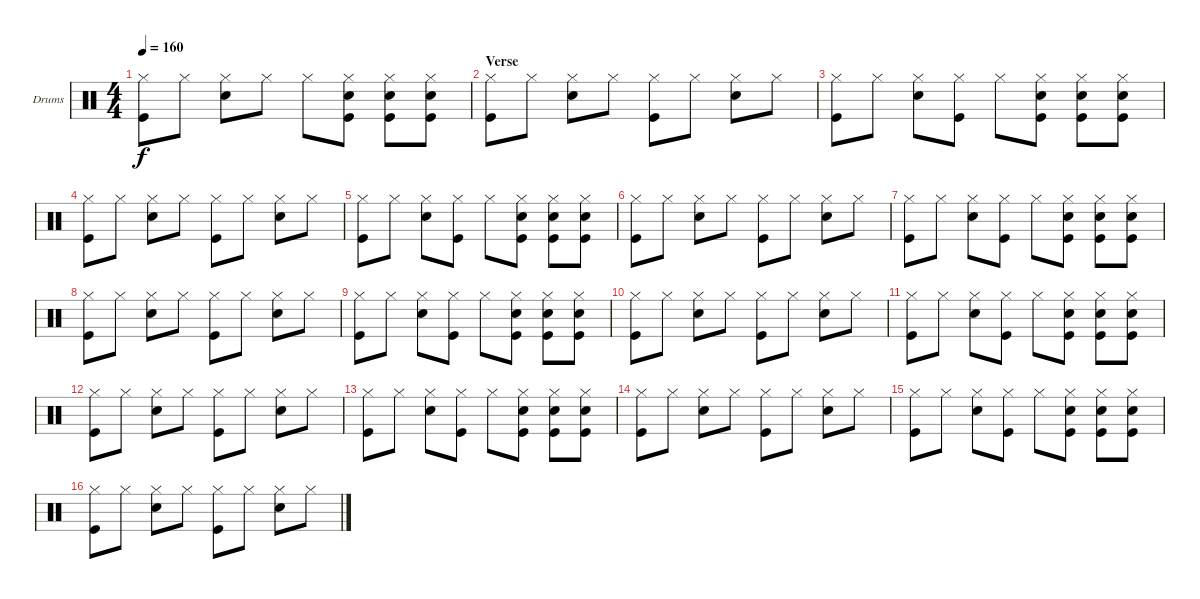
\bracketExtendMode groupsimilarinstruments
\firstSystemTrackNameOrientation horizontal
\otherSystemsTrackNameOrientation horizontal
\track ("Fabrizio" "Drums") {instrument percussion}
\staff {score}
\articulation defaults
\ts (4 4)
\tempo 160
\clef neutral
\ks c
("Hi-Hat (closed)" "Kick (hit)").8{dy f} "Hi-Hat (closed)".8 ("Hi-Hat (closed)" "Snare (hit) 2").8 "Hi-Hat (closed)".8 "Hi-Hat (closed)".8 ("Hi-Hat (closed)" "Kick (hit)" "Snare (hit) 2").8 ("Hi-Hat (closed)" "Snare (hit) 2" "Kick (hit)").8 ("Hi-Hat (closed)" "Kick (hit)" "Snare (hit) 2").8 |
\section ("" "Verse")
("Hi-Hat (closed)" "Kick (hit)").8 "Hi-Hat (closed)".8 ("Hi-Hat (closed)" "Snare (hit) 2").8 "Hi-Hat (closed)".8 ("Hi-Hat (closed)" "Kick (hit)").8 "Hi-Hat (closed)".8 ("Hi-Hat (closed)" "Snare (hit) 2").8 "Hi-Hat (closed)".8 |
("Hi-Hat (closed)" "Kick (hit)").8 "Hi-Hat (closed)".8 ("Hi-Hat (closed)" "Snare (hit) 2").8 ("Hi-Hat (closed)" "Kick (hit)").8 "Hi-Hat (closed)".8 ("Hi-Hat (closed)" "Snare (hit) 2" "Kick (hit)").8 ("Hi-Hat (closed)" "Snare (hit) 2" "Kick (hit)").8 ("Hi-Hat (closed)" "Snare (hit) 2" "Kick (hit)").8 |
("Hi-Hat (closed)" "Kick (hit)").8 "Hi-Hat (closed)".8 ("Hi-Hat (closed)" "Snare (hit) 2").8 "Hi-Hat (closed)".8 ("Hi-Hat (closed)" "Kick (hit)").8 "Hi-Hat (closed)".8 ("Hi-Hat (closed)" "Snare (hit) 2").8 "Hi-Hat (closed)".8 |
("Hi-Hat (closed)" "Kick (hit)").8 "Hi-Hat (closed)".8 ("Hi-Hat (closed)" "Snare (hit) 2").8 ("Hi-Hat (closed)" "Kick (hit)").8 "Hi-Hat (closed)".8 ("Hi-Hat (closed)" "Snare (hit) 2" "Kick (hit)").8 ("Hi-Hat (closed)" "Snare (hit) 2" "Kick (hit)").8 ("Hi-Hat (closed)" "Snare (hit) 2" "Kick (hit)").8 |
("Hi-Hat (closed)" "Kick (hit)").8 "Hi-Hat (closed)".8 ("Hi-Hat (closed)" "Snare (hit) 2").8 "Hi-Hat (closed)".8 ("Hi-Hat (closed)" "Kick (hit)").8 "Hi-Hat (closed)".8 ("Hi-Hat (closed)" "Snare (hit) 2").8 "Hi-Hat (closed)".8 |
("Hi-Hat (closed)" "Kick (hit)").8 "Hi-Hat (closed)".8 ("Hi-Hat (closed)" "Snare (hit) 2").8 ("Hi-Hat (closed)" "Kick (hit)").8 "Hi-Hat (closed)".8 ("Hi-Hat (closed)" "Snare (hit) 2" "Kick (hit)").8 ("Hi-Hat (closed)" "Snare (hit) 2" "Kick (hit)").8 ("Hi-Hat (closed)" "Snare (hit) 2" "Kick (hit)").8 |
("Hi-Hat (closed)" "Kick (hit)").8 "Hi-Hat (closed)".8 ("Hi-Hat (closed)" "Snare (hit) 2").8 "Hi-Hat (closed)".8 ("Hi-Hat (closed)" "Kick (hit)").8 "Hi-Hat (closed)".8 ("Hi-Hat (closed)" "Snare (hit) 2").8 "Hi-Hat (closed)".8 |
("Hi-Hat (closed)" "Kick (hit)").8 "Hi-Hat (closed)".8 ("Hi-Hat (closed)" "Snare (hit) 2").8 ("Hi-Hat (closed)" "Kick (hit)").8 "Hi-Hat (closed)".8 ("Hi-Hat (closed)" "Snare (hit) 2" "Kick (hit)").8 ("Hi-Hat (closed)" "Snare (hit) 2" "Kick (hit)").8 ("Hi-Hat (closed)" "Snare (hit) 2" "Kick (hit)").8 |
("Hi-Hat (closed)" "Kick (hit)").8 "Hi-Hat (closed)".8 ("Hi-Hat (closed)" "Snare (hit) 2").8 "Hi-Hat (closed)".8 ("Hi-Hat (closed)" "Kick (hit)").8 "Hi-Hat (closed)".8 ("Hi-Hat (closed)" "Snare (hit) 2").8 "Hi-Hat (closed)".8 |
("Hi-Hat (closed)" "Kick (hit)").8 "Hi-Hat (closed)".8 ("Hi-Hat (closed)" "Snare (hit) 2").8 ("Hi-Hat (closed)" "Kick (hit)").8 "Hi-Hat (closed)".8 ("Hi-Hat (closed)" "Snare (hit) 2" "Kick (hit)").8 ("Hi-Hat (closed)" "Snare (hit) 2" "Kick (hit)").8 ("Hi-Hat (closed)" "Snare (hit) 2" "Kick (hit)").8 |
("Hi-Hat (closed)" "Kick (hit)").8 "Hi-Hat (closed)".8 ("Hi-Hat (closed)" "Snare (hit) 2").8 "Hi-Hat (closed)".8 ("Hi-Hat (closed)" "Kick (hit)").8 "Hi-Hat (closed)".8 ("Hi-Hat (closed)" "Snare (hit) 2").8 "Hi-Hat (closed)".8 |
("Hi-Hat (closed)" "Kick (hit)").8 "Hi-Hat (closed)".8 ("Hi-Hat (closed)" "Snare (hit) 2").8 ("Hi-Hat (closed)" "Kick (hit)").8 "Hi-Hat (closed)".8 ("Hi-Hat (closed)" "Snare (hit) 2" "Kick (hit)").8 ("Hi-Hat (closed)" "Snare (hit) 2" "Kick (hit)").8 ("Hi-Hat (closed)" "Snare (hit) 2" "Kick (hit)").8 |
("Hi-Hat (closed)" "Kick (hit)").8 "Hi-Hat (closed)".8 ("Hi-Hat (closed)" "Snare (hit) 2").8 "Hi-Hat (closed)".8 ("Hi-Hat (closed)" "Kick (hit)").8 "Hi-Hat (closed)".8 ("Hi-Hat (closed)" "Snare (hit) 2").8 "Hi-Hat (closed)".8 |
("Hi-Hat (closed)" "Kick (hit)").8 "Hi-Hat (closed)".8 ("Hi-Hat (closed)" "Snare (hit) 2").8 ("Hi-Hat (closed)" "Kick (hit)").8 "Hi-Hat (closed)".8 ("Hi-Hat (closed)" "Snare (hit) 2" "Kick (hit)").8 ("Hi-Hat (closed)" "Snare (hit) 2" "Kick (hit)").8 ("Hi-Hat (closed)" "Snare (hit) 2" "Kick (hit)").8 |
("Hi-Hat (closed)" "Kick (hit)").8 "Hi-Hat (closed)".8 ("Hi-Hat (closed)" "Snare (hit) 2").8 "Hi-Hat (closed)".8 ("Hi-Hat (closed)" "Kick (hit)").8 "Hi-Hat (closed)".8 ("Hi-Hat (closed)" "Snare (hit) 2").8 "Hi-Hat (closed)".8
